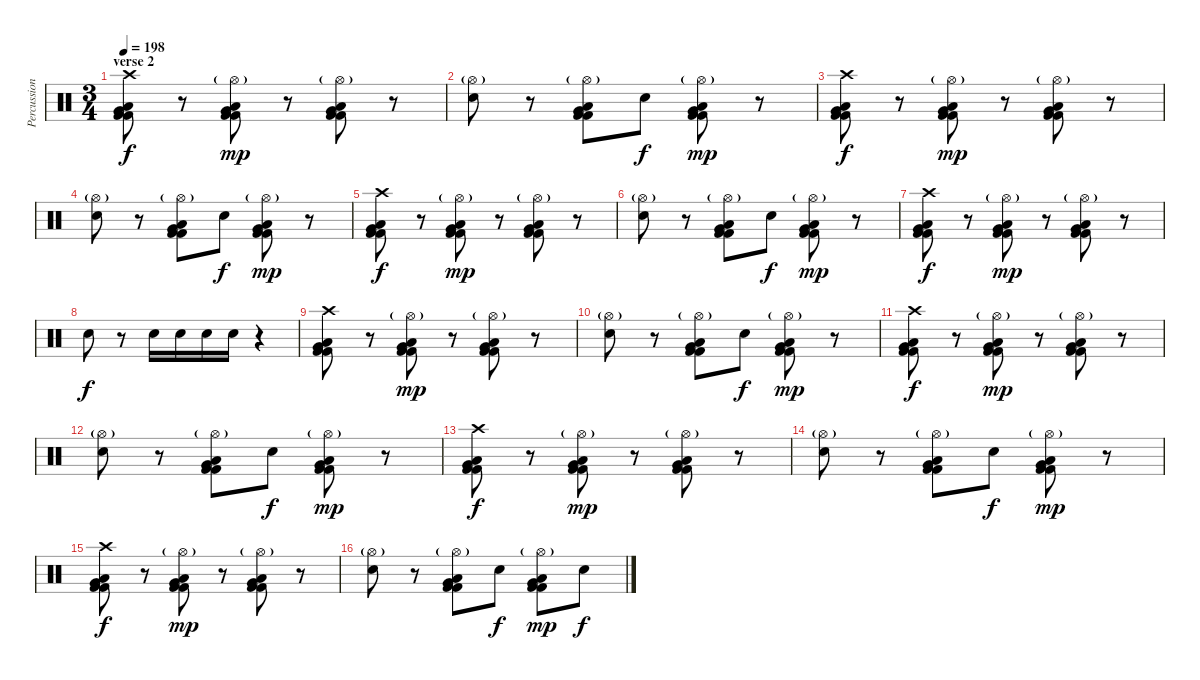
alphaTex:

\track ("Percussions" "Percussion") {instrument percussion}
\staff {score}
\articulation defaults
\ts (3 4)
\section ("" "verse 2")
\tempo 198
\clef neutral
\ks c
("Low Floor Tom (hit)" "Kick (hit) 2" "Kick (hit) 2" "Very Low Tom (hit)" "Crash high (hit)").8{dy f} r.8 ("Low Floor Tom (hit)" "Kick (hit) 2" "Kick (hit) 2" "Very Low Tom (hit)" "Hi-Hat (open)"{g}).8{dy mp} r.8 ("Low Floor Tom (hit)" "Kick (hit) 2" "Kick (hit) 2" "Very Low Tom (hit)" "Hi-Hat (open)"{g}).8 r.8 |
("Electric Snare (hit)" "Hi-Hat (open)"{g}).8 r.8 ("Low Floor Tom (hit)" "Kick (hit) 2" "Kick (hit) 2" "Very Low Tom (hit)" "Hi-Hat (open)"{g}).8 "Electric Snare (hit)".8{dy f} ("Low Floor Tom (hit)" "Kick (hit) 2" "Kick (hit) 2" "Very Low Tom (hit)" "Hi-Hat (open)"{g}).8{dy mp} r.8 |
("Low Floor Tom (hit)" "Kick (hit) 2" "Kick (hit) 2" "Very Low Tom (hit)" "Crash high (hit)").8{dy f} r.8 ("Low Floor Tom (hit)" "Kick (hit) 2" "Kick (hit) 2" "Very Low Tom (hit)" "Hi-Hat (open)"{g}).8{dy mp} r.8 ("Low Floor Tom (hit)" "Kick (hit) 2" "Kick (hit) 2" "Very Low Tom (hit)" "Hi-Hat (open)"{g}).8 r.8 |
("Electric Snare (hit)" "Hi-Hat (open)"{g}).8 r.8 ("Low Floor Tom (hit)" "Kick (hit) 2" "Kick (hit) 2" "Very Low Tom (hit)" "Hi-Hat (open)"{g}).8 "Electric Snare (hit)".8{dy f} ("Low Floor Tom (hit)" "Kick (hit) 2" "Kick (hit) 2" "Very Low Tom (hit)" "Hi-Hat (open)"{g}).8{dy mp} r.8 |
("Low Floor Tom (hit)" "Kick (hit) 2" "Kick (hit) 2" "Very Low Tom (hit)" "Crash high (hit)").8{dy f} r.8 ("Low Floor Tom (hit)" "Kick (hit) 2" "Kick (hit) 2" "Very Low Tom (hit)" "Hi-Hat (open)"{g}).8{dy mp} r.8 ("Low Floor Tom (hit)" "Kick (hit) 2" "Kick (hit) 2" "Very Low Tom (hit)" "Hi-Hat (open)"{g}).8 r.8 |
("Electric Snare (hit)" "Hi-Hat (open)"{g}).8 r.8 ("Low Floor Tom (hit)" "Kick (hit) 2" "Kick (hit) 2" "Very Low Tom (hit)" "Hi-Hat (open)"{g}).8 "Electric Snare (hit)".8{dy f} ("Low Floor Tom (hit)" "Kick (hit) 2" "Kick (hit) 2" "Very Low Tom (hit)" "Hi-Hat (open)"{g}).8{dy mp} r.8 |
("Low Floor Tom (hit)" "Kick (hit) 2" "Kick (hit) 2" "Very Low Tom (hit)" "Crash high (hit)").8{dy f} r.8 ("Low Floor Tom (hit)" "Kick (hit) 2" "Kick (hit) 2" "Very Low Tom (hit)" "Hi-Hat (open)"{g}).8{dy mp} r.8 ("Low Floor Tom (hit)" "Kick (hit) 2" "Kick (hit) 2" "Very Low Tom (hit)" "Hi-Hat (open)"{g}).8 r.8 |
"Electric Snare (hit)".8{dy f} r.8 "Electric Snare (hit)".16 "Electric Snare (hit)".16 "Electric Snare (hit)".16 "Electric Snare (hit)".16 r.4 |
("Low Floor Tom (hit)" "Kick (hit) 2" "Kick (hit) 2" "Very Low Tom (hit)" "Crash high (hit)").8 r.8 ("Low Floor Tom (hit)" "Kick (hit) 2" "Kick (hit) 2" "Very Low Tom (hit)" "Hi-Hat (open)"{g}).8{dy mp} r.8 ("Low Floor Tom (hit)" "Kick (hit) 2" "Kick (hit) 2" "Very Low Tom (hit)" "Hi-Hat (open)"{g}).8 r.8 |
("Electric Snare (hit)" "Hi-Hat (open)"{g}).8 r.8 ("Low Floor Tom (hit)" "Kick (hit) 2" "Kick (hit) 2" "Very Low Tom (hit)" "Hi-Hat (open)"{g}).8 "Electric Snare (hit)".8{dy f} ("Low Floor Tom (hit)" "Kick (hit) 2" "Kick (hit) 2" "Very Low Tom (hit)" "Hi-Hat (open)"{g}).8{dy mp} r.8 |
("Low Floor Tom (hit)" "Kick (hit) 2" "Kick (hit) 2" "Very Low Tom (hit)" "Crash high (hit)").8{dy f} r.8 ("Low Floor Tom (hit)" "Kick (hit) 2" "Kick (hit) 2" "Very Low Tom (hit)" "Hi-Hat (open)"{g}).8{dy mp} r.8 ("Low Floor Tom (hit)" "Kick (hit) 2" "Kick (hit) 2" "Very Low Tom (hit)" "Hi-Hat (open)"{g}).8 r.8 |
("Electric Snare (hit)" "Hi-Hat (open)"{g}).8 r.8 ("Low Floor Tom (hit)" "Kick (hit) 2" "Kick (hit) 2" "Very Low Tom (hit)" "Hi-Hat (open)"{g}).8 "Electric Snare (hit)".8{dy f} ("Low Floor Tom (hit)" "Kick (hit) 2" "Kick (hit) 2" "Very Low Tom (hit)" "Hi-Hat (open)"{g}).8{dy mp} r.8 |
("Low Floor Tom (hit)" "Kick (hit) 2" "Kick (hit) 2" "Very Low Tom (hit)" "Crash high (hit)").8{dy f} r.8 ("Low Floor Tom (hit)" "Kick (hit) 2" "Kick (hit) 2" "Very Low Tom (hit)" "Hi-Hat (open)"{g}).8{dy mp} r.8 ("Low Floor Tom (hit)" "Kick (hit) 2" "Kick (hit) 2" "Very Low Tom (hit)" "Hi-Hat (open)"{g}).8 r.8 |
("Electric Snare (hit)" "Hi-Hat (open)"{g}).8 r.8 ("Low Floor Tom (hit)" "Kick (hit) 2" "Kick (hit) 2" "Very Low Tom (hit)" "Hi-Hat (open)"{g}).8 "Electric Snare (hit)".8{dy f} ("Low Floor Tom (hit)" "Kick (hit) 2" "Kick (hit) 2" "Very Low Tom (hit)" "Hi-Hat (open)"{g}).8{dy mp} r.8 |
("Low Floor Tom (hit)" "Kick (hit) 2" "Kick (hit) 2" "Very Low Tom (hit)" "Crash high (hit)").8{dy f} r.8 ("Low Floor Tom (hit)" "Kick (hit) 2" "Kick (hit) 2" "Very Low Tom (hit)" "Hi-Hat (open)"{g}).8{dy mp} r.8 ("Low Floor Tom (hit)" "Kick (hit) 2" "Kick (hit) 2" "Very Low Tom (hit)" "Hi-Hat (open)"{g}).8 r.8 |
("Electric Snare (hit)" "Hi-Hat (open)"{g}).8 r.8 ("Low Floor Tom (hit)" "Kick (hit) 2" "Kick (hit) 2" "Very Low Tom (hit)" "Hi-Hat (open)"{g}).8 "Electric Snare (hit)".8{dy f} ("Low Floor Tom (hit)" "Kick (hit) 2" "Kick (hit) 2" "Very Low Tom (hit)" "Hi-Hat (open)"{g}).8{dy mp} "Electric Snare (hit)".8{dy f}
